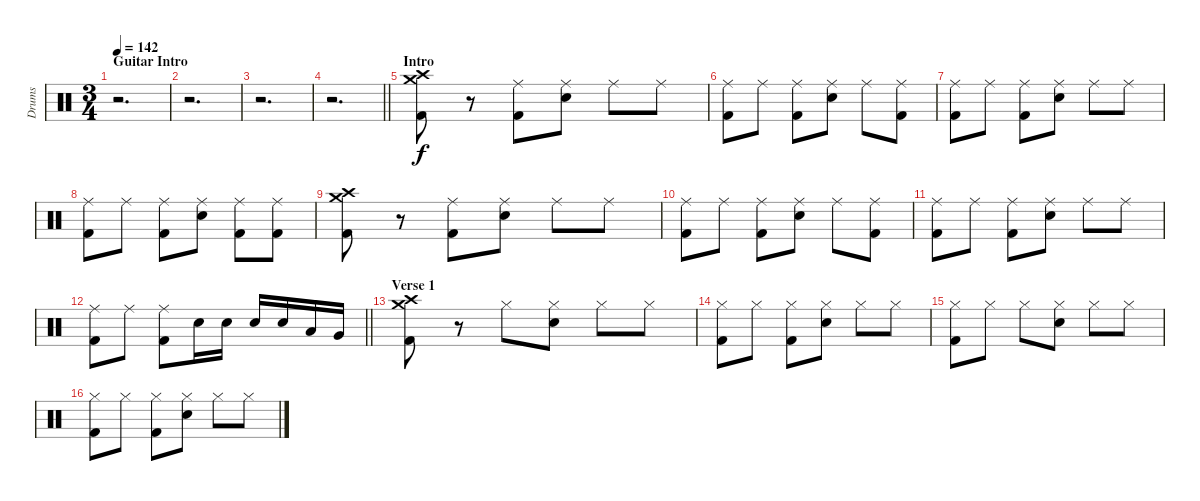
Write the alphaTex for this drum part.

\track ("Drums" "Drums") {instrument percussion}
\staff {score}
\articulation defaults
\ts (3 4)
\section ("" "Guitar Intro")
\tempo 142
\clef neutral
\ks c
r.2{d dy f} |
r.2{d} |
r.2{d} |
\barLineRight lightlight
r.2{d} |
\section ("" "Intro")
("Crash medium (hit)" "Crash high (hit)" "Kick (hit) 2").8 r.8 ("Ride (middle)" "Kick (hit) 2").8 ("Ride (middle)" "Electric Snare (hit)").8 "Ride (middle)".8 "Ride (middle)".8 |
("Ride (middle)" "Kick (hit) 2").8 "Ride (middle)".8 ("Ride (middle)" "Kick (hit) 2").8 ("Ride (middle)" "Electric Snare (hit)").8 "Ride (middle)".8 ("Ride (middle)" "Kick (hit) 2").8 |
("Ride (middle)" "Kick (hit) 2").8 "Ride (middle)".8 ("Ride (middle)" "Kick (hit) 2").8 ("Ride (middle)" "Electric Snare (hit)").8 "Ride (middle)".8 "Ride (middle)".8 |
("Ride (middle)" "Kick (hit) 2").8 "Ride (middle)".8 ("Ride (middle)" "Kick (hit) 2").8 ("Ride (middle)" "Electric Snare (hit)").8 ("Ride (middle)" "Kick (hit) 2").8 ("Ride (middle)" "Kick (hit) 2").8 |
("Crash medium (hit)" "Crash high (hit)" "Kick (hit) 2").8 r.8 ("Ride (middle)" "Kick (hit) 2").8 ("Ride (middle)" "Electric Snare (hit)").8 "Ride (middle)".8 "Ride (middle)".8 |
("Ride (middle)" "Kick (hit) 2").8 "Ride (middle)".8 ("Ride (middle)" "Kick (hit) 2").8 ("Ride (middle)" "Electric Snare (hit)").8 "Ride (middle)".8 ("Ride (middle)" "Kick (hit) 2").8 |
("Ride (middle)" "Kick (hit) 2").8 "Ride (middle)".8 ("Ride (middle)" "Kick (hit) 2").8 ("Ride (middle)" "Electric Snare (hit)").8 "Ride (middle)".8 "Ride (middle)".8 |
\barLineRight lightlight
("Ride (middle)" "Kick (hit) 2").8 "Ride (middle)".8 ("Ride (middle)" "Kick (hit) 2").8 "Electric Snare (hit)".16 "Electric Snare (hit)".16 "Electric Snare (hit)".16 "Electric Snare (hit)".16 "Low Tom (hit)".16 "Very Low Tom (hit)".16 |
\section ("" "Verse 1")
("Crash medium (hit)" "Crash high (hit)" "Kick (hit) 2").8 r.8 "Hi-Hat (closed)".8 ("Hi-Hat (closed)" "Electric Snare (hit)").8 "Hi-Hat (closed)".8 "Hi-Hat (closed)".8 |
("Hi-Hat (closed)" "Kick (hit) 2").8 "Hi-Hat (closed)".8 ("Hi-Hat (closed)" "Kick (hit) 2").8 ("Hi-Hat (closed)" "Electric Snare (hit)").8 "Hi-Hat (closed)".8 "Hi-Hat (closed)".8 |
("Hi-Hat (closed)" "Kick (hit) 2").8 "Hi-Hat (closed)".8 "Hi-Hat (closed)".8 ("Hi-Hat (closed)" "Electric Snare (hit)").8 "Hi-Hat (closed)".8 "Hi-Hat (closed)".8 |
("Hi-Hat (closed)" "Kick (hit) 2").8 "Hi-Hat (closed)".8 ("Hi-Hat (closed)" "Kick (hit) 2").8 ("Hi-Hat (closed)" "Electric Snare (hit)").8 "Hi-Hat (closed)".8 "Hi-Hat (closed)".8
